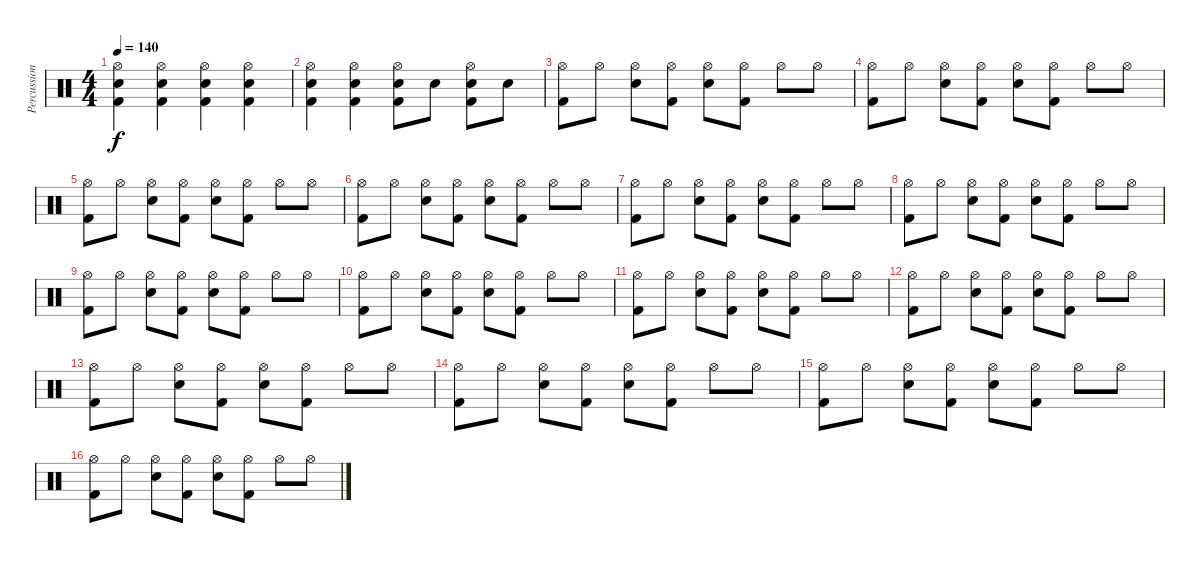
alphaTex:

\track ("Percussion" "Percussion") {instrument percussion}
\staff {score}
\articulation defaults
\ts (4 4)
\tempo 140
\clef neutral
\ks c
("Hi-Hat (open)" "Snare (hit) 2" "Kick (hit) 2").4{dy f} ("Hi-Hat (open)" "Snare (hit) 2" "Kick (hit) 2").4 ("Hi-Hat (open)" "Snare (hit) 2" "Kick (hit) 2").4 ("Hi-Hat (open)" "Snare (hit) 2" "Kick (hit) 2").4 |
("Hi-Hat (open)" "Snare (hit) 2" "Kick (hit) 2").4 ("Hi-Hat (open)" "Snare (hit) 2" "Kick (hit) 2").4 ("Hi-Hat (open)" "Snare (hit) 2" "Kick (hit) 2").8 "Snare (hit) 2".8 ("Hi-Hat (open)" "Snare (hit) 2" "Kick (hit) 2").8 "Snare (hit) 2".8 |
("Hi-Hat (open)" "Kick (hit) 2").8 "Hi-Hat (open)".8 ("Hi-Hat (open)" "Snare (hit) 2").8 ("Hi-Hat (open)" "Kick (hit) 2").8 ("Hi-Hat (open)" "Snare (hit) 2").8 ("Hi-Hat (open)" "Kick (hit) 2").8 "Hi-Hat (open)".8 "Hi-Hat (open)".8 |
("Hi-Hat (open)" "Kick (hit) 2").8 "Hi-Hat (open)".8 ("Hi-Hat (open)" "Snare (hit) 2").8 ("Hi-Hat (open)" "Kick (hit) 2").8 ("Hi-Hat (open)" "Snare (hit) 2").8 ("Hi-Hat (open)" "Kick (hit) 2").8 "Hi-Hat (open)".8 "Hi-Hat (open)".8 |
("Hi-Hat (open)" "Kick (hit) 2").8 "Hi-Hat (open)".8 ("Hi-Hat (open)" "Snare (hit) 2").8 ("Hi-Hat (open)" "Kick (hit) 2").8 ("Hi-Hat (open)" "Snare (hit) 2").8 ("Hi-Hat (open)" "Kick (hit) 2").8 "Hi-Hat (open)".8 "Hi-Hat (open)".8 |
("Hi-Hat (open)" "Kick (hit) 2").8 "Hi-Hat (open)".8 ("Hi-Hat (open)" "Snare (hit) 2").8 ("Hi-Hat (open)" "Kick (hit) 2").8 ("Hi-Hat (open)" "Snare (hit) 2").8 ("Hi-Hat (open)" "Kick (hit) 2").8 "Hi-Hat (open)".8 "Hi-Hat (open)".8 |
("Hi-Hat (open)" "Kick (hit) 2").8 "Hi-Hat (open)".8 ("Hi-Hat (open)" "Snare (hit) 2").8 ("Hi-Hat (open)" "Kick (hit) 2").8 ("Hi-Hat (open)" "Snare (hit) 2").8 ("Hi-Hat (open)" "Kick (hit) 2").8 "Hi-Hat (open)".8 "Hi-Hat (open)".8 |
("Hi-Hat (open)" "Kick (hit) 2").8 "Hi-Hat (open)".8 ("Hi-Hat (open)" "Snare (hit) 2").8 ("Hi-Hat (open)" "Kick (hit) 2").8 ("Hi-Hat (open)" "Snare (hit) 2").8 ("Hi-Hat (open)" "Kick (hit) 2").8 "Hi-Hat (open)".8 "Hi-Hat (open)".8 |
("Hi-Hat (open)" "Kick (hit) 2").8 "Hi-Hat (open)".8 ("Hi-Hat (open)" "Snare (hit) 2").8 ("Hi-Hat (open)" "Kick (hit) 2").8 ("Hi-Hat (open)" "Snare (hit) 2").8 ("Hi-Hat (open)" "Kick (hit) 2").8 "Hi-Hat (open)".8 "Hi-Hat (open)".8 |
("Hi-Hat (open)" "Kick (hit) 2").8 "Hi-Hat (open)".8 ("Hi-Hat (open)" "Snare (hit) 2").8 ("Hi-Hat (open)" "Kick (hit) 2").8 ("Hi-Hat (open)" "Snare (hit) 2").8 ("Hi-Hat (open)" "Kick (hit) 2").8 "Hi-Hat (open)".8 "Hi-Hat (open)".8 |
("Hi-Hat (open)" "Kick (hit) 2").8 "Hi-Hat (open)".8 ("Hi-Hat (open)" "Snare (hit) 2").8 ("Hi-Hat (open)" "Kick (hit) 2").8 ("Hi-Hat (open)" "Snare (hit) 2").8 ("Hi-Hat (open)" "Kick (hit) 2").8 "Hi-Hat (open)".8 "Hi-Hat (open)".8 |
("Hi-Hat (open)" "Kick (hit) 2").8 "Hi-Hat (open)".8 ("Hi-Hat (open)" "Snare (hit) 2").8 ("Hi-Hat (open)" "Kick (hit) 2").8 ("Hi-Hat (open)" "Snare (hit) 2").8 ("Hi-Hat (open)" "Kick (hit) 2").8 "Hi-Hat (open)".8 "Hi-Hat (open)".8 |
("Hi-Hat (open)" "Kick (hit) 2").8 "Hi-Hat (open)".8 ("Hi-Hat (open)" "Snare (hit) 2").8 ("Hi-Hat (open)" "Kick (hit) 2").8 ("Hi-Hat (open)" "Snare (hit) 2").8 ("Hi-Hat (open)" "Kick (hit) 2").8 "Hi-Hat (open)".8 "Hi-Hat (open)".8 |
("Hi-Hat (open)" "Kick (hit) 2").8 "Hi-Hat (open)".8 ("Hi-Hat (open)" "Snare (hit) 2").8 ("Hi-Hat (open)" "Kick (hit) 2").8 ("Hi-Hat (open)" "Snare (hit) 2").8 ("Hi-Hat (open)" "Kick (hit) 2").8 "Hi-Hat (open)".8 "Hi-Hat (open)".8 |
("Hi-Hat (open)" "Kick (hit) 2").8 "Hi-Hat (open)".8 ("Hi-Hat (open)" "Snare (hit) 2").8 ("Hi-Hat (open)" "Kick (hit) 2").8 ("Hi-Hat (open)" "Snare (hit) 2").8 ("Hi-Hat (open)" "Kick (hit) 2").8 "Hi-Hat (open)".8 "Hi-Hat (open)".8 |
("Hi-Hat (open)" "Kick (hit) 2").8 "Hi-Hat (open)".8 ("Hi-Hat (open)" "Snare (hit) 2").8 ("Hi-Hat (open)" "Kick (hit) 2").8 ("Hi-Hat (open)" "Snare (hit) 2").8 ("Hi-Hat (open)" "Kick (hit) 2").8 "Hi-Hat (open)".8 "Hi-Hat (open)".8
